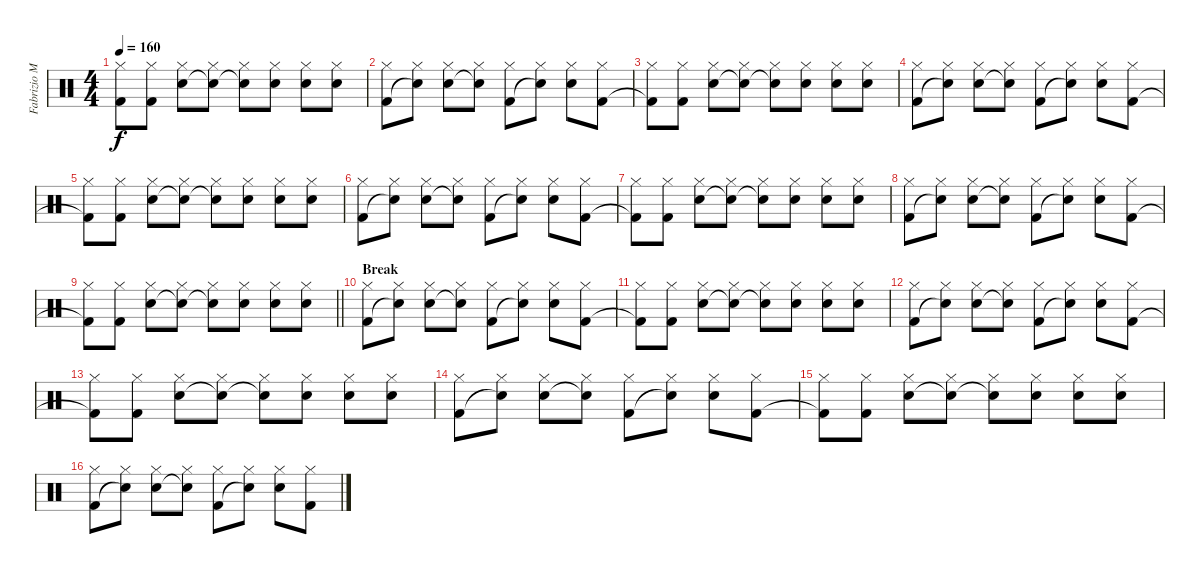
\track ("Fabrizio Moretti" "Fabrizio M") {instrument percussion}
\staff {score}
\articulation defaults
\ts (4 4)
\tempo 160
\clef neutral
\ks c
("Hi-Hat (closed)" "Kick (hit) 2"{t}).8{dy f} ("Hi-Hat (closed)" "Kick (hit) 2").8 ("Hi-Hat (closed)" "Electric Snare (hit)").8 ("Hi-Hat (closed)" "Snare (hit)"{t}).8 ("Hi-Hat (closed)" "Snare (hit)"{t}).8 ("Hi-Hat (closed)" "Electric Snare (hit)").8 ("Hi-Hat (closed)" "Electric Snare (hit)").8 ("Hi-Hat (closed)" "Electric Snare (hit)").8 |
("Hi-Hat (closed)" "Kick (hit) 2").8 ("Hi-Hat (closed)" "Snare (hit)"{t}).8 ("Hi-Hat (closed)" "Electric Snare (hit)").8 ("Hi-Hat (closed)" "Snare (hit)"{t}).8 ("Hi-Hat (closed)" "Kick (hit) 2").8 ("Hi-Hat (closed)" "Snare (hit)"{t}).8 ("Hi-Hat (closed)" "Electric Snare (hit)").8 ("Hi-Hat (closed)" "Kick (hit) 2").8 |
("Hi-Hat (closed)" "Kick (hit) 2"{t}).8 ("Hi-Hat (closed)" "Kick (hit) 2").8 ("Hi-Hat (closed)" "Electric Snare (hit)").8 ("Hi-Hat (closed)" "Snare (hit)"{t}).8 ("Hi-Hat (closed)" "Snare (hit)"{t}).8 ("Hi-Hat (closed)" "Electric Snare (hit)").8 ("Hi-Hat (closed)" "Electric Snare (hit)").8 ("Hi-Hat (closed)" "Electric Snare (hit)").8 |
("Hi-Hat (closed)" "Kick (hit) 2").8 ("Hi-Hat (closed)" "Snare (hit)"{t}).8 ("Hi-Hat (closed)" "Electric Snare (hit)").8 ("Hi-Hat (closed)" "Snare (hit)"{t}).8 ("Hi-Hat (closed)" "Kick (hit) 2").8 ("Hi-Hat (closed)" "Snare (hit)"{t}).8 ("Hi-Hat (closed)" "Electric Snare (hit)").8 ("Hi-Hat (closed)" "Kick (hit) 2").8 |
("Hi-Hat (closed)" "Kick (hit) 2"{t}).8 ("Hi-Hat (closed)" "Kick (hit) 2").8 ("Hi-Hat (closed)" "Electric Snare (hit)").8 ("Hi-Hat (closed)" "Snare (hit)"{t}).8 ("Hi-Hat (closed)" "Snare (hit)"{t}).8 ("Hi-Hat (closed)" "Electric Snare (hit)").8 ("Hi-Hat (closed)" "Electric Snare (hit)").8 ("Hi-Hat (closed)" "Electric Snare (hit)").8 |
("Hi-Hat (closed)" "Kick (hit) 2").8 ("Hi-Hat (closed)" "Snare (hit)"{t}).8 ("Hi-Hat (closed)" "Electric Snare (hit)").8 ("Hi-Hat (closed)" "Snare (hit)"{t}).8 ("Hi-Hat (closed)" "Kick (hit) 2").8 ("Hi-Hat (closed)" "Snare (hit)"{t}).8 ("Hi-Hat (closed)" "Electric Snare (hit)").8 ("Hi-Hat (closed)" "Kick (hit) 2").8 |
("Hi-Hat (closed)" "Kick (hit) 2"{t}).8 ("Hi-Hat (closed)" "Kick (hit) 2").8 ("Hi-Hat (closed)" "Electric Snare (hit)").8 ("Hi-Hat (closed)" "Snare (hit)"{t}).8 ("Hi-Hat (closed)" "Snare (hit)"{t}).8 ("Hi-Hat (closed)" "Electric Snare (hit)").8 ("Hi-Hat (closed)" "Electric Snare (hit)").8 ("Hi-Hat (closed)" "Electric Snare (hit)").8 |
("Hi-Hat (closed)" "Kick (hit) 2").8 ("Hi-Hat (closed)" "Snare (hit)"{t}).8 ("Hi-Hat (closed)" "Electric Snare (hit)").8 ("Hi-Hat (closed)" "Snare (hit)"{t}).8 ("Hi-Hat (closed)" "Kick (hit) 2").8 ("Hi-Hat (closed)" "Snare (hit)"{t}).8 ("Hi-Hat (closed)" "Electric Snare (hit)").8 ("Hi-Hat (closed)" "Kick (hit) 2").8 |
\barLineRight lightlight
("Hi-Hat (closed)" "Kick (hit) 2"{t}).8 ("Hi-Hat (closed)" "Kick (hit) 2").8 ("Hi-Hat (closed)" "Electric Snare (hit)").8 ("Hi-Hat (closed)" "Snare (hit)"{t}).8 ("Hi-Hat (closed)" "Snare (hit)"{t}).8 ("Hi-Hat (closed)" "Electric Snare (hit)").8 ("Hi-Hat (closed)" "Electric Snare (hit)").8 ("Hi-Hat (closed)" "Electric Snare (hit)").8 |
\section ("" "Break")
("Hi-Hat (closed)" "Kick (hit) 2").8 ("Hi-Hat (closed)" "Snare (hit)"{t}).8 ("Hi-Hat (closed)" "Electric Snare (hit)").8 ("Hi-Hat (closed)" "Snare (hit)"{t}).8 ("Hi-Hat (closed)" "Kick (hit) 2").8 ("Hi-Hat (closed)" "Snare (hit)"{t}).8 ("Hi-Hat (closed)" "Electric Snare (hit)").8 ("Hi-Hat (closed)" "Kick (hit) 2").8 |
("Hi-Hat (closed)" "Kick (hit) 2"{t}).8 ("Hi-Hat (closed)" "Kick (hit) 2").8 ("Hi-Hat (closed)" "Electric Snare (hit)").8 ("Hi-Hat (closed)" "Snare (hit)"{t}).8 ("Hi-Hat (closed)" "Snare (hit)"{t}).8 ("Hi-Hat (closed)" "Electric Snare (hit)").8 ("Hi-Hat (closed)" "Electric Snare (hit)").8 ("Hi-Hat (closed)" "Electric Snare (hit)").8 |
("Hi-Hat (closed)" "Kick (hit) 2").8 ("Hi-Hat (closed)" "Snare (hit)"{t}).8 ("Hi-Hat (closed)" "Electric Snare (hit)").8 ("Hi-Hat (closed)" "Snare (hit)"{t}).8 ("Hi-Hat (closed)" "Kick (hit) 2").8 ("Hi-Hat (closed)" "Snare (hit)"{t}).8 ("Hi-Hat (closed)" "Electric Snare (hit)").8 ("Hi-Hat (closed)" "Kick (hit) 2").8 |
("Hi-Hat (closed)" "Kick (hit) 2"{t}).8 ("Hi-Hat (closed)" "Kick (hit) 2").8 ("Hi-Hat (closed)" "Electric Snare (hit)").8 ("Hi-Hat (closed)" "Snare (hit)"{t}).8 ("Hi-Hat (closed)" "Snare (hit)"{t}).8 ("Hi-Hat (closed)" "Electric Snare (hit)").8 ("Hi-Hat (closed)" "Electric Snare (hit)").8 ("Hi-Hat (closed)" "Electric Snare (hit)").8 |
("Hi-Hat (closed)" "Kick (hit) 2").8 ("Hi-Hat (closed)" "Snare (hit)"{t}).8 ("Hi-Hat (closed)" "Electric Snare (hit)").8 ("Hi-Hat (closed)" "Snare (hit)"{t}).8 ("Hi-Hat (closed)" "Kick (hit) 2").8 ("Hi-Hat (closed)" "Snare (hit)"{t}).8 ("Hi-Hat (closed)" "Electric Snare (hit)").8 ("Hi-Hat (closed)" "Kick (hit) 2").8 |
("Hi-Hat (closed)" "Kick (hit) 2"{t}).8 ("Hi-Hat (closed)" "Kick (hit) 2").8 ("Hi-Hat (closed)" "Electric Snare (hit)").8 ("Hi-Hat (closed)" "Snare (hit)"{t}).8 ("Hi-Hat (closed)" "Snare (hit)"{t}).8 ("Hi-Hat (closed)" "Electric Snare (hit)").8 ("Hi-Hat (closed)" "Electric Snare (hit)").8 ("Hi-Hat (closed)" "Electric Snare (hit)").8 |
("Hi-Hat (closed)" "Kick (hit) 2").8 ("Hi-Hat (closed)" "Snare (hit)"{t}).8 ("Hi-Hat (closed)" "Electric Snare (hit)").8 ("Hi-Hat (closed)" "Snare (hit)"{t}).8 ("Hi-Hat (closed)" "Kick (hit) 2").8 ("Hi-Hat (closed)" "Snare (hit)"{t}).8 ("Hi-Hat (closed)" "Electric Snare (hit)").8 ("Hi-Hat (closed)" "Kick (hit) 2").8
